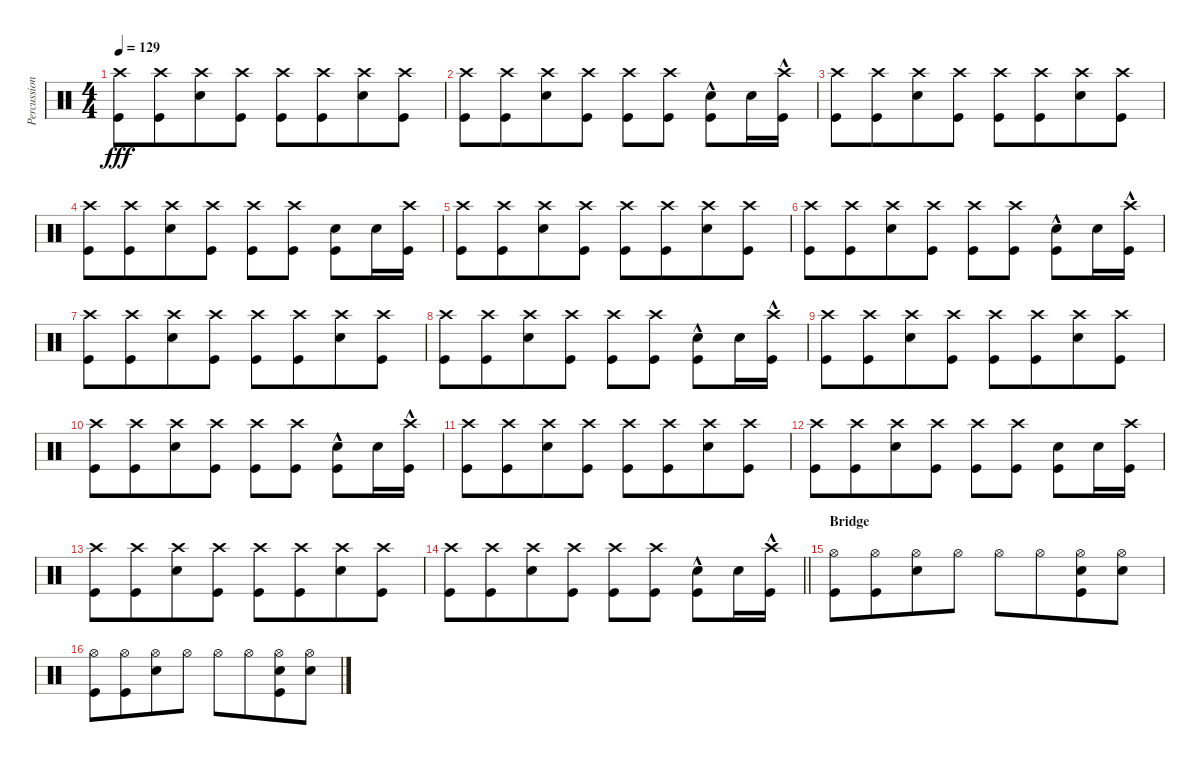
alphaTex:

\track ("Percussion" "Percussion") {instrument percussion}
\staff {score}
\articulation defaults
\ts (4 4)
\tempo 129
\clef neutral
\ks c
("Crash high (hit)" "Kick (hit)").8{dy fff} ("Crash high (hit)" "Kick (hit)").8{beam merge} ("Crash high (hit)" "Snare (hit) 2").8 ("Crash high (hit)" "Kick (hit)").8 ("Crash high (hit)" "Kick (hit)").8 ("Crash high (hit)" "Kick (hit)").8{beam merge} ("Crash high (hit)" "Snare (hit) 2").8 ("Crash high (hit)" "Kick (hit)").8 |
("Crash high (hit)" "Kick (hit)").8 ("Crash high (hit)" "Kick (hit)").8{beam merge} ("Crash high (hit)" "Snare (hit) 2").8 ("Crash high (hit)" "Kick (hit)").8 ("Crash high (hit)" "Kick (hit)").8 ("Crash high (hit)" "Kick (hit)").8 ("Snare (hit) 2" "Kick (hit)"{hac}).8 "Snare (hit) 2".16 ("Crash high (hit)" "Kick (hit)"{hac}).16 |
("Crash high (hit)" "Kick (hit)").8 ("Crash high (hit)" "Kick (hit)").8{beam merge} ("Crash high (hit)" "Snare (hit) 2").8 ("Crash high (hit)" "Kick (hit)").8 ("Crash high (hit)" "Kick (hit)").8 ("Crash high (hit)" "Kick (hit)").8{beam merge} ("Crash high (hit)" "Snare (hit) 2").8 ("Crash high (hit)" "Kick (hit)").8 |
("Crash high (hit)" "Kick (hit)").8 ("Crash high (hit)" "Kick (hit)").8{beam merge} ("Crash high (hit)" "Snare (hit) 2").8 ("Crash high (hit)" "Kick (hit)").8 ("Crash high (hit)" "Kick (hit)").8 ("Crash high (hit)" "Kick (hit)").8 ("Snare (hit) 2" "Kick (hit)").8 "Snare (hit) 2".16 ("Crash high (hit)" "Kick (hit)").16 |
("Crash high (hit)" "Kick (hit)").8 ("Crash high (hit)" "Kick (hit)").8{beam merge} ("Crash high (hit)" "Snare (hit) 2").8 ("Crash high (hit)" "Kick (hit)").8 ("Crash high (hit)" "Kick (hit)").8 ("Crash high (hit)" "Kick (hit)").8{beam merge} ("Crash high (hit)" "Snare (hit) 2").8 ("Crash high (hit)" "Kick (hit)").8 |
("Crash high (hit)" "Kick (hit)").8 ("Crash high (hit)" "Kick (hit)").8{beam merge} ("Crash high (hit)" "Snare (hit) 2").8 ("Crash high (hit)" "Kick (hit)").8 ("Crash high (hit)" "Kick (hit)").8 ("Crash high (hit)" "Kick (hit)").8 ("Snare (hit) 2" "Kick (hit)"{hac}).8 "Snare (hit) 2".16 ("Crash high (hit)" "Kick (hit)"{hac}).16 |
("Crash high (hit)" "Kick (hit)").8 ("Crash high (hit)" "Kick (hit)").8{beam merge} ("Crash high (hit)" "Snare (hit) 2").8 ("Crash high (hit)" "Kick (hit)").8 ("Crash high (hit)" "Kick (hit)").8 ("Crash high (hit)" "Kick (hit)").8{beam merge} ("Crash high (hit)" "Snare (hit) 2").8 ("Crash high (hit)" "Kick (hit)").8 |
("Crash high (hit)" "Kick (hit)").8 ("Crash high (hit)" "Kick (hit)").8{beam merge} ("Crash high (hit)" "Snare (hit) 2").8 ("Crash high (hit)" "Kick (hit)").8 ("Crash high (hit)" "Kick (hit)").8 ("Crash high (hit)" "Kick (hit)").8 ("Snare (hit) 2" "Kick (hit)"{hac}).8 "Snare (hit) 2".16 ("Crash high (hit)" "Kick (hit)"{hac}).16 |
("Crash high (hit)" "Kick (hit)").8 ("Crash high (hit)" "Kick (hit)").8{beam merge} ("Crash high (hit)" "Snare (hit) 2").8 ("Crash high (hit)" "Kick (hit)").8 ("Crash high (hit)" "Kick (hit)").8 ("Crash high (hit)" "Kick (hit)").8{beam merge} ("Crash high (hit)" "Snare (hit) 2").8 ("Crash high (hit)" "Kick (hit)").8 |
("Crash high (hit)" "Kick (hit)").8 ("Crash high (hit)" "Kick (hit)").8{beam merge} ("Crash high (hit)" "Snare (hit) 2").8 ("Crash high (hit)" "Kick (hit)").8 ("Crash high (hit)" "Kick (hit)").8 ("Crash high (hit)" "Kick (hit)").8 ("Snare (hit) 2" "Kick (hit)"{hac}).8 "Snare (hit) 2".16 ("Crash high (hit)" "Kick (hit)"{hac}).16 |
("Crash high (hit)" "Kick (hit)").8 ("Crash high (hit)" "Kick (hit)").8{beam merge} ("Crash high (hit)" "Snare (hit) 2").8 ("Crash high (hit)" "Kick (hit)").8 ("Crash high (hit)" "Kick (hit)").8 ("Crash high (hit)" "Kick (hit)").8{beam merge} ("Crash high (hit)" "Snare (hit) 2").8 ("Crash high (hit)" "Kick (hit)").8 |
("Crash high (hit)" "Kick (hit)").8 ("Crash high (hit)" "Kick (hit)").8{beam merge} ("Crash high (hit)" "Snare (hit) 2").8 ("Crash high (hit)" "Kick (hit)").8 ("Crash high (hit)" "Kick (hit)").8 ("Crash high (hit)" "Kick (hit)").8 ("Snare (hit) 2" "Kick (hit)").8 "Snare (hit) 2".16 ("Crash high (hit)" "Kick (hit)").16 |
("Crash high (hit)" "Kick (hit)").8 ("Crash high (hit)" "Kick (hit)").8{beam merge} ("Crash high (hit)" "Snare (hit) 2").8 ("Crash high (hit)" "Kick (hit)").8 ("Crash high (hit)" "Kick (hit)").8 ("Crash high (hit)" "Kick (hit)").8{beam merge} ("Crash high (hit)" "Snare (hit) 2").8 ("Crash high (hit)" "Kick (hit)").8 |
\barLineRight lightlight
("Crash high (hit)" "Kick (hit)").8 ("Crash high (hit)" "Kick (hit)").8{beam merge} ("Crash high (hit)" "Snare (hit) 2").8 ("Crash high (hit)" "Kick (hit)").8 ("Crash high (hit)" "Kick (hit)").8 ("Crash high (hit)" "Kick (hit)").8 ("Snare (hit) 2" "Kick (hit)"{hac}).8 "Snare (hit) 2".16 ("Crash high (hit)" "Kick (hit)"{hac}).16 |
\section ("" "Bridge")
("Hi-Hat (open)" "Kick (hit)").8 ("Hi-Hat (open)" "Kick (hit)").8{beam merge} ("Hi-Hat (open)" "Snare (hit) 2").8 "Hi-Hat (open)".8 "Hi-Hat (open)".8 "Hi-Hat (open)".8{beam merge} ("Hi-Hat (open)" "Snare (hit) 2" "Kick (hit)").8 ("Hi-Hat (open)" "Snare (hit) 2").8 |
("Hi-Hat (open)" "Kick (hit)").8 ("Hi-Hat (open)" "Kick (hit)").8{beam merge} ("Hi-Hat (open)" "Snare (hit) 2").8 "Hi-Hat (open)".8 "Hi-Hat (open)".8 "Hi-Hat (open)".8{beam merge} ("Hi-Hat (open)" "Snare (hit) 2" "Kick (hit)").8 ("Hi-Hat (open)" "Snare (hit) 2").8
